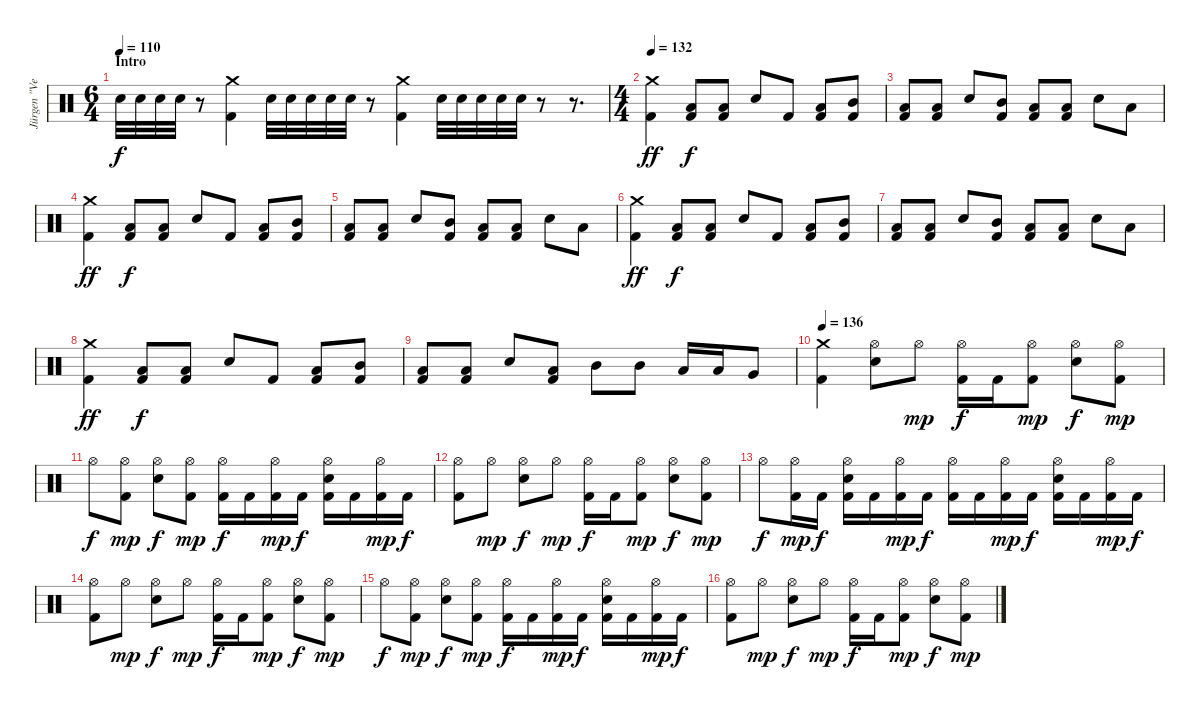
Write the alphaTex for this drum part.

\track ("Jürgen \"Ventor\" Reil" "Jürgen \"Ve") {instrument percussion}
\staff {score}
\articulation defaults
\ts (6 4)
\section ("" "Intro")
\tempo 110
\clef neutral
\ks c "Snare (hit) 2".32{dy f} "Snare (hit) 2".32 "Snare (hit) 2".32 "Snare (hit) 2".32
r.8 ("Kick (hit) 2" "Crash medium (hit)").4 "Snare (hit) 2".32 "Snare (hit) 2".32 "Snare (hit) 2".32 "Snare (hit) 2".32 "Snare (hit) 2".32 r.8 ("Kick (hit) 2" "Crash medium (hit)").4 "Snare (hit) 2".32 "Snare (hit) 2".32 "Snare (hit) 2".32 "Snare (hit) 2".32 "Snare (hit) 2".32 r.8 r.8{d} |
\ts (4 4)
\tempo 132
("Kick (hit) 2" "Crash medium (hit)").4{dy ff} ("Kick (hit) 2" "Low Tom (hit)").8{dy f} ("Kick (hit) 2" "Low Tom (hit)").8 "Snare (hit) 2".8 "Kick (hit) 2".8 ("Kick (hit) 2" "Low Tom (hit)").8 ("Kick (hit) 2" "Mid Tom (hit)").8 |
("Kick (hit) 2" "Low Tom (hit)").8 ("Kick (hit) 2" "Low Tom (hit)").8 "Snare (hit) 2".8 ("Kick (hit) 2" "Mid Tom (hit)").8 ("Kick (hit) 2" "Low Tom (hit)").8 ("Kick (hit) 2" "Low Tom (hit)").8 "Snare (hit) 2".8 "Low Tom (hit)".8 |
("Kick (hit) 2" "Crash medium (hit)").4{dy ff} ("Kick (hit) 2" "Low Tom (hit)").8{dy f} ("Kick (hit) 2" "Low Tom (hit)").8 "Snare (hit) 2".8 "Kick (hit) 2".8 ("Kick (hit) 2" "Low Tom (hit)").8 ("Kick (hit) 2" "Mid Tom (hit)").8 |
("Kick (hit) 2" "Low Tom (hit)").8 ("Kick (hit) 2" "Low Tom (hit)").8 "Snare (hit) 2".8 ("Kick (hit) 2" "Mid Tom (hit)").8 ("Kick (hit) 2" "Low Tom (hit)").8 ("Kick (hit) 2" "Low Tom (hit)").8 "Snare (hit) 2".8 "Low Tom (hit)".8 |
("Kick (hit) 2" "Crash medium (hit)").4{dy ff} ("Kick (hit) 2" "Low Tom (hit)").8{dy f} ("Kick (hit) 2" "Low Tom (hit)").8 "Snare (hit) 2".8 "Kick (hit) 2".8 ("Kick (hit) 2" "Low Tom (hit)").8 ("Kick (hit) 2" "Mid Tom (hit)").8 |
("Kick (hit) 2" "Low Tom (hit)").8 ("Kick (hit) 2" "Low Tom (hit)").8 "Snare (hit) 2".8 ("Kick (hit) 2" "Mid Tom (hit)").8 ("Kick (hit) 2" "Low Tom (hit)").8 ("Kick (hit) 2" "Low Tom (hit)").8 "Snare (hit) 2".8 "Low Tom (hit)".8 |
("Kick (hit) 2" "Crash medium (hit)").4{dy ff} ("Kick (hit) 2" "Low Tom (hit)").8{dy f} ("Kick (hit) 2" "Low Tom (hit)").8 "Snare (hit) 2".8 "Kick (hit) 2".8 ("Kick (hit) 2" "Low Tom (hit)").8 ("Kick (hit) 2" "Mid Tom (hit)").8 |
("Kick (hit) 2" "Low Tom (hit)").8 ("Kick (hit) 2" "Low Tom (hit)").8 "Snare (hit) 2".8 ("Kick (hit) 2" "Low Tom (hit)").8 "Mid Tom (hit)".8 "Mid Tom (hit)".8 "Low Tom (hit)".16 "Low Tom (hit)".16 "Very Low Tom (hit)".8 |
\tempo 136
("Kick (hit) 2" "Crash medium (hit)").4 ("Hi-Hat (open)" "Snare (hit) 2").8 "Hi-Hat (open)".8{dy mp} ("Kick (hit) 2" "Hi-Hat (open)").16{dy f} "Kick (hit) 2".16 ("Kick (hit) 2" "Hi-Hat (open)").8{dy mp} ("Hi-Hat (open)" "Snare (hit) 2").8{dy f} ("Kick (hit) 2" "Hi-Hat (open)").8{dy mp} |
"Hi-Hat (open)".8{dy f} ("Kick (hit) 2" "Hi-Hat (open)").8{dy mp} ("Hi-Hat (open)" "Snare (hit) 2").8{dy f} ("Kick (hit) 2" "Hi-Hat (open)").8{dy mp} ("Kick (hit) 2" "Hi-Hat (open)").16{dy f} "Kick (hit) 2".16 ("Kick (hit) 2" "Hi-Hat (open)").16{dy mp} "Kick (hit) 2".16{dy f} ("Kick (hit) 2" "Hi-Hat (open)" "Snare (hit) 2").16 "Kick (hit) 2".16 ("Kick (hit) 2" "Hi-Hat (open)").16{dy mp} "Kick (hit) 2".16{dy f} |
("Kick (hit) 2" "Hi-Hat (open)").8 "Hi-Hat (open)".8{dy mp} ("Hi-Hat (open)" "Snare (hit) 2").8{dy f} "Hi-Hat (open)".8{dy mp} ("Kick (hit) 2" "Hi-Hat (open)").16{dy f} "Kick (hit) 2".16 ("Kick (hit) 2" "Hi-Hat (open)").8{dy mp} ("Hi-Hat (open)" "Snare (hit) 2").8{dy f} ("Kick (hit) 2" "Hi-Hat (open)").8{dy mp} |
"Hi-Hat (open)".8{dy f} ("Kick (hit) 2" "Hi-Hat (open)").16{dy mp} "Kick (hit) 2".16{dy f} ("Kick (hit) 2" "Hi-Hat (open)" "Snare (hit) 2").16 "Kick (hit) 2".16 ("Kick (hit) 2" "Hi-Hat (open)").16{dy mp} "Kick (hit) 2".16{dy f} ("Kick (hit) 2" "Hi-Hat (open)").16 "Kick (hit) 2".16 ("Kick (hit) 2" "Hi-Hat (open)").16{dy mp} "Kick (hit) 2".16{dy f} ("Kick (hit) 2" "Hi-Hat (open)" "Snare (hit) 2").16 "Kick (hit) 2".16 ("Kick (hit) 2" "Hi-Hat (open)").16{dy mp} "Kick (hit) 2".16{dy f} |
("Kick (hit) 2" "Hi-Hat (open)").8 "Hi-Hat (open)".8{dy mp} ("Hi-Hat (open)" "Snare (hit) 2").8{dy f} "Hi-Hat (open)".8{dy mp} ("Kick (hit) 2" "Hi-Hat (open)").16{dy f} "Kick (hit) 2".16 ("Kick (hit) 2" "Hi-Hat (open)").8{dy mp} ("Hi-Hat (open)" "Snare (hit) 2").8{dy f} ("Kick (hit) 2" "Hi-Hat (open)").8{dy mp} |
"Hi-Hat (open)".8{dy f} ("Kick (hit) 2" "Hi-Hat (open)").8{dy mp} ("Hi-Hat (open)" "Snare (hit) 2").8{dy f} ("Kick (hit) 2" "Hi-Hat (open)").8{dy mp} ("Kick (hit) 2" "Hi-Hat (open)").16{dy f} "Kick (hit) 2".16 ("Kick (hit) 2" "Hi-Hat (open)").16{dy mp} "Kick (hit) 2".16{dy f} ("Kick (hit) 2" "Hi-Hat (open)" "Snare (hit) 2").16 "Kick (hit) 2".16 ("Kick (hit) 2" "Hi-Hat (open)").16{dy mp} "Kick (hit) 2".16{dy f} |
("Kick (hit) 2" "Hi-Hat (open)").8 "Hi-Hat (open)".8{dy mp} ("Hi-Hat (open)" "Snare (hit) 2").8{dy f} "Hi-Hat (open)".8{dy mp} ("Kick (hit) 2" "Hi-Hat (open)").16{dy f} "Kick (hit) 2".16 ("Kick (hit) 2" "Hi-Hat (open)").8{dy mp} ("Hi-Hat (open)" "Snare (hit) 2").8{dy f} ("Kick (hit) 2" "Hi-Hat (open)").8{dy mp}
